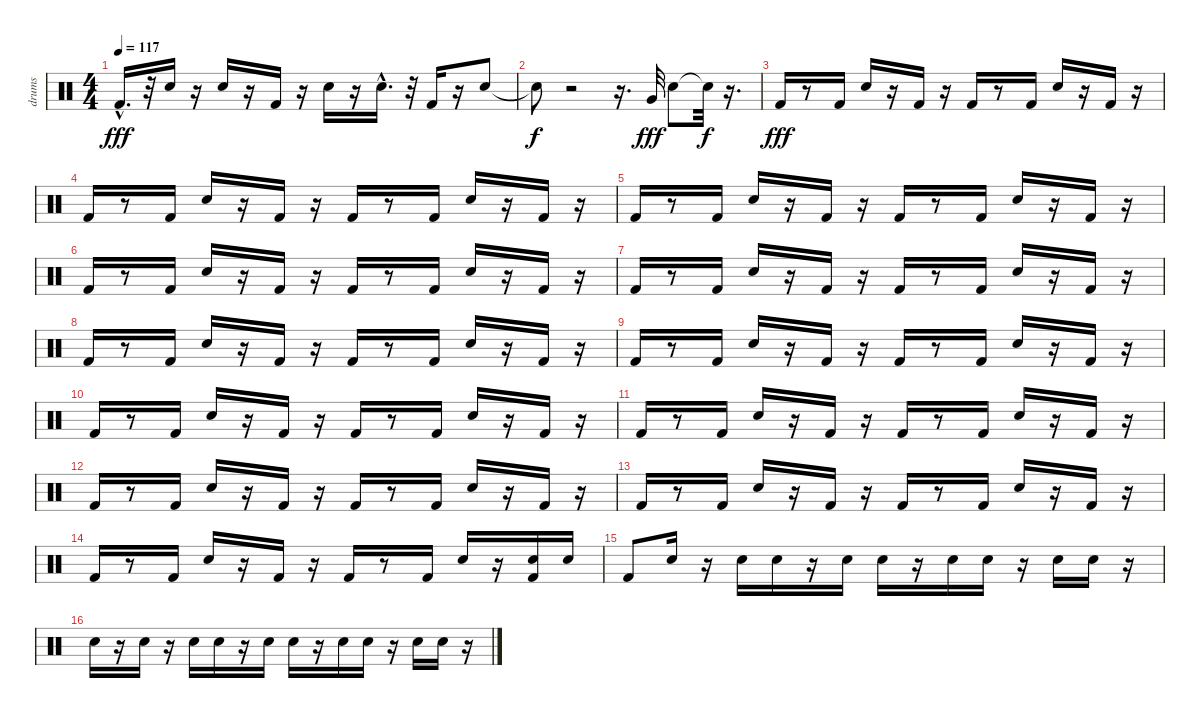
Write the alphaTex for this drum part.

\track ("drums" "drums") {instrument percussion}
\staff {score}
\articulation defaults
\ts (4 4)
\tempo 117
\clef neutral
\ks c "Kick (hit) 2"{hac}.16{d dy fff}
r.32 "Snare (hit) 2".16 r.16 "Snare (hit) 2".16 r.16 "Kick (hit) 2".16 r.16 "Snare (hit) 2".16 r.16 "Snare (hit) 2"{hac}.16{d} r.32 "Kick (hit) 2".16 r.16 "Snare (hit) 2".8 |
"Snare (hit)"{t}.8{dy f} r.2 r.16{d} "Very Low Tom (hit)".32{dy fff} "Snare (hit) 2".8 "Snare (hit)"{t}.32{dy f} r.16{d} |
"Kick (hit) 2".16{dy fff} r.8 "Kick (hit) 2".16 "Snare (hit) 2".16 r.16 "Kick (hit) 2".16 r.16 "Kick (hit) 2".16 r.8 "Kick (hit) 2".16 "Snare (hit) 2".16 r.16 "Kick (hit) 2".16 r.16 |
"Kick (hit) 2".16 r.8 "Kick (hit) 2".16 "Snare (hit) 2".16 r.16 "Kick (hit) 2".16 r.16 "Kick (hit) 2".16 r.8 "Kick (hit) 2".16 "Snare (hit) 2".16 r.16 "Kick (hit) 2".16 r.16 |
"Kick (hit) 2".16 r.8 "Kick (hit) 2".16 "Snare (hit) 2".16 r.16 "Kick (hit) 2".16 r.16 "Kick (hit) 2".16 r.8 "Kick (hit) 2".16 "Snare (hit) 2".16 r.16 "Kick (hit) 2".16 r.16 |
"Kick (hit) 2".16 r.8 "Kick (hit) 2".16 "Snare (hit) 2".16 r.16 "Kick (hit) 2".16 r.16 "Kick (hit) 2".16 r.8 "Kick (hit) 2".16 "Snare (hit) 2".16 r.16 "Kick (hit) 2".16 r.16 |
"Kick (hit) 2".16 r.8 "Kick (hit) 2".16 "Snare (hit) 2".16 r.16 "Kick (hit) 2".16 r.16 "Kick (hit) 2".16 r.8 "Kick (hit) 2".16 "Snare (hit) 2".16 r.16 "Kick (hit) 2".16 r.16 |
"Kick (hit) 2".16 r.8 "Kick (hit) 2".16 "Snare (hit) 2".16 r.16 "Kick (hit) 2".16 r.16 "Kick (hit) 2".16 r.8 "Kick (hit) 2".16 "Snare (hit) 2".16 r.16 "Kick (hit) 2".16 r.16 |
"Kick (hit) 2".16 r.8 "Kick (hit) 2".16 "Snare (hit) 2".16 r.16 "Kick (hit) 2".16 r.16 "Kick (hit) 2".16 r.8 "Kick (hit) 2".16 "Snare (hit) 2".16 r.16 "Kick (hit) 2".16 r.16 |
"Kick (hit) 2".16 r.8 "Kick (hit) 2".16 "Snare (hit) 2".16 r.16 "Kick (hit) 2".16 r.16 "Kick (hit) 2".16 r.8 "Kick (hit) 2".16 "Snare (hit) 2".16 r.16 "Kick (hit) 2".16 r.16 |
"Kick (hit) 2".16 r.8 "Kick (hit) 2".16 "Snare (hit) 2".16 r.16 "Kick (hit) 2".16 r.16 "Kick (hit) 2".16 r.8 "Kick (hit) 2".16 "Snare (hit) 2".16 r.16 "Kick (hit) 2".16 r.16 |
"Kick (hit) 2".16 r.8 "Kick (hit) 2".16 "Snare (hit) 2".16 r.16 "Kick (hit) 2".16 r.16 "Kick (hit) 2".16 r.8 "Kick (hit) 2".16 "Snare (hit) 2".16 r.16 "Kick (hit) 2".16 r.16 |
"Kick (hit) 2".16 r.8 "Kick (hit) 2".16 "Snare (hit) 2".16 r.16 "Kick (hit) 2".16 r.16 "Kick (hit) 2".16 r.8 "Kick (hit) 2".16 "Snare (hit) 2".16 r.16 "Kick (hit) 2".16 r.16 |
"Kick (hit) 2".16 r.8 "Kick (hit) 2".16 "Snare (hit) 2".16 r.16 "Kick (hit) 2".16 r.16 "Kick (hit) 2".16 r.8 "Kick (hit) 2".16 "Snare (hit) 2".16 r.16 ("Kick (hit) 2" "Snare (hit) 2").16 "Snare (hit) 2".16 |
"Kick (hit) 2".8 "Snare (hit) 2".16 r.16 "Snare (hit) 2".16 "Snare (hit) 2".16 r.16 "Snare (hit) 2".16 "Snare (hit) 2".16 r.16 "Snare (hit) 2".16 "Snare (hit) 2".16 r.16 "Snare (hit) 2".16 "Snare (hit) 2".16 r.16 |
"Snare (hit) 2".16 r.16 "Snare (hit) 2".16 r.16 "Snare (hit) 2".16 "Snare (hit) 2".16 r.16 "Snare (hit) 2".16 "Snare (hit) 2".16 r.16 "Snare (hit) 2".16 "Snare (hit) 2".16 r.16 "Snare (hit) 2".16 "Snare (hit) 2".16 r.16
